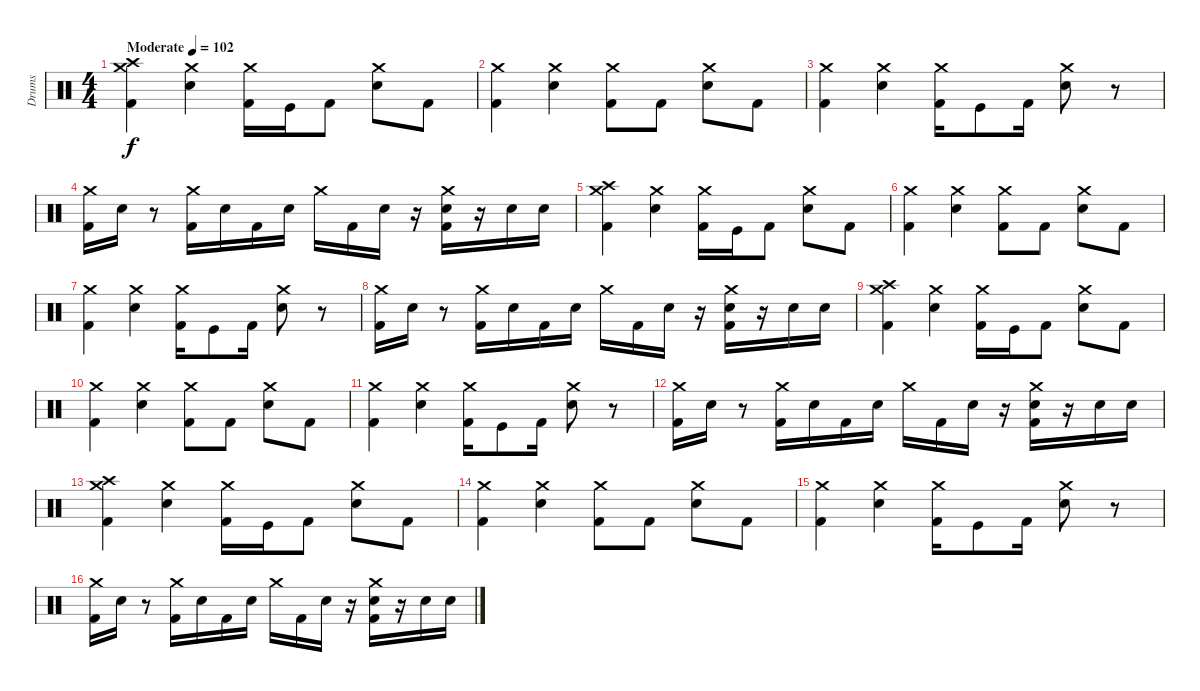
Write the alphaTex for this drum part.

\track ("Drums" "Drums") {instrument percussion}
\staff
\articulation defaults
\ts (4 4)
\tempo (102 "Moderate")
\clef neutral
\ks c
("Crash medium (hit)" "Crash high (hit)" "Kick (hit) 2").4{dy f} ("Crash medium (hit)" "Electric Snare (hit)").4 ("Crash medium (hit)" "Kick (hit) 2").16 "Kick (hit)".16 "Kick (hit) 2".8 ("Crash medium (hit)" "Electric Snare (hit)").8 "Kick (hit) 2".8 |
("Crash medium (hit)" "Kick (hit) 2").4 ("Crash medium (hit)" "Electric Snare (hit)").4 ("Crash medium (hit)" "Kick (hit) 2").8 "Kick (hit) 2".8 ("Crash medium (hit)" "Electric Snare (hit)").8 "Kick (hit) 2".8 |
("Crash medium (hit)" "Kick (hit) 2").4 ("Crash medium (hit)" "Electric Snare (hit)").4 ("Crash medium (hit)" "Kick (hit) 2").16 "Kick (hit)".8 "Kick (hit) 2".16 ("Crash medium (hit)" "Electric Snare (hit)").8 r.8 |
("Crash medium (hit)" "Kick (hit) 2").16 "Electric Snare (hit)".16 r.8 ("Crash medium (hit)" "Kick (hit) 2").16 "Electric Snare (hit)".16 "Kick (hit) 2".16 "Electric Snare (hit)".16 "Crash medium (hit)".16 "Kick (hit) 2".16 "Electric Snare (hit)".16 r.16 ("Crash medium (hit)" "Electric Snare (hit)" "Kick (hit) 2").16 r.16 "Electric Snare (hit)".16 "Electric Snare (hit)".16 |
("Crash medium (hit)" "Crash high (hit)" "Kick (hit) 2").4 ("Crash medium (hit)" "Electric Snare (hit)").4 ("Crash medium (hit)" "Kick (hit) 2").16 "Kick (hit)".16 "Kick (hit) 2".8 ("Crash medium (hit)" "Electric Snare (hit)").8 "Kick (hit) 2".8 |
("Crash medium (hit)" "Kick (hit) 2").4 ("Crash medium (hit)" "Electric Snare (hit)").4 ("Crash medium (hit)" "Kick (hit) 2").8 "Kick (hit) 2".8 ("Crash medium (hit)" "Electric Snare (hit)").8 "Kick (hit) 2".8 |
("Crash medium (hit)" "Kick (hit) 2").4 ("Crash medium (hit)" "Electric Snare (hit)").4 ("Crash medium (hit)" "Kick (hit) 2").16 "Kick (hit)".8 "Kick (hit) 2".16 ("Crash medium (hit)" "Electric Snare (hit)").8 r.8 |
("Crash medium (hit)" "Kick (hit) 2").16 "Electric Snare (hit)".16 r.8 ("Crash medium (hit)" "Kick (hit) 2").16 "Electric Snare (hit)".16 "Kick (hit) 2".16 "Electric Snare (hit)".16 "Crash medium (hit)".16 "Kick (hit) 2".16 "Electric Snare (hit)".16 r.16 ("Crash medium (hit)" "Electric Snare (hit)" "Kick (hit) 2").16 r.16 "Electric Snare (hit)".16 "Electric Snare (hit)".16 |
("Crash medium (hit)" "Crash high (hit)" "Kick (hit) 2").4 ("Crash medium (hit)" "Electric Snare (hit)").4 ("Crash medium (hit)" "Kick (hit) 2").16 "Kick (hit)".16 "Kick (hit) 2".8 ("Crash medium (hit)" "Electric Snare (hit)").8 "Kick (hit) 2".8 |
("Crash medium (hit)" "Kick (hit) 2").4 ("Crash medium (hit)" "Electric Snare (hit)").4 ("Crash medium (hit)" "Kick (hit) 2").8 "Kick (hit) 2".8 ("Crash medium (hit)" "Electric Snare (hit)").8 "Kick (hit) 2".8 |
("Crash medium (hit)" "Kick (hit) 2").4 ("Crash medium (hit)" "Electric Snare (hit)").4 ("Crash medium (hit)" "Kick (hit) 2").16 "Kick (hit)".8 "Kick (hit) 2".16 ("Crash medium (hit)" "Electric Snare (hit)").8 r.8 |
("Crash medium (hit)" "Kick (hit) 2").16 "Electric Snare (hit)".16 r.8 ("Crash medium (hit)" "Kick (hit) 2").16 "Electric Snare (hit)".16 "Kick (hit) 2".16 "Electric Snare (hit)".16 "Crash medium (hit)".16 "Kick (hit) 2".16 "Electric Snare (hit)".16 r.16 ("Crash medium (hit)" "Electric Snare (hit)" "Kick (hit) 2").16 r.16 "Electric Snare (hit)".16 "Electric Snare (hit)".16 |
("Crash medium (hit)" "Crash high (hit)" "Kick (hit) 2").4 ("Crash medium (hit)" "Electric Snare (hit)").4 ("Crash medium (hit)" "Kick (hit) 2").16 "Kick (hit)".16 "Kick (hit) 2".8 ("Crash medium (hit)" "Electric Snare (hit)").8 "Kick (hit) 2".8 |
("Crash medium (hit)" "Kick (hit) 2").4 ("Crash medium (hit)" "Electric Snare (hit)").4 ("Crash medium (hit)" "Kick (hit) 2").8 "Kick (hit) 2".8 ("Crash medium (hit)" "Electric Snare (hit)").8 "Kick (hit) 2".8 |
("Crash medium (hit)" "Kick (hit) 2").4 ("Crash medium (hit)" "Electric Snare (hit)").4 ("Crash medium (hit)" "Kick (hit) 2").16 "Kick (hit)".8 "Kick (hit) 2".16 ("Crash medium (hit)" "Electric Snare (hit)").8 r.8 |
("Crash medium (hit)" "Kick (hit) 2").16 "Electric Snare (hit)".16 r.8 ("Crash medium (hit)" "Kick (hit) 2").16 "Electric Snare (hit)".16 "Kick (hit) 2".16 "Electric Snare (hit)".16 "Crash medium (hit)".16 "Kick (hit) 2".16 "Electric Snare (hit)".16 r.16 ("Crash medium (hit)" "Electric Snare (hit)" "Kick (hit) 2").16 r.16 "Electric Snare (hit)".16 "Electric Snare (hit)".16
